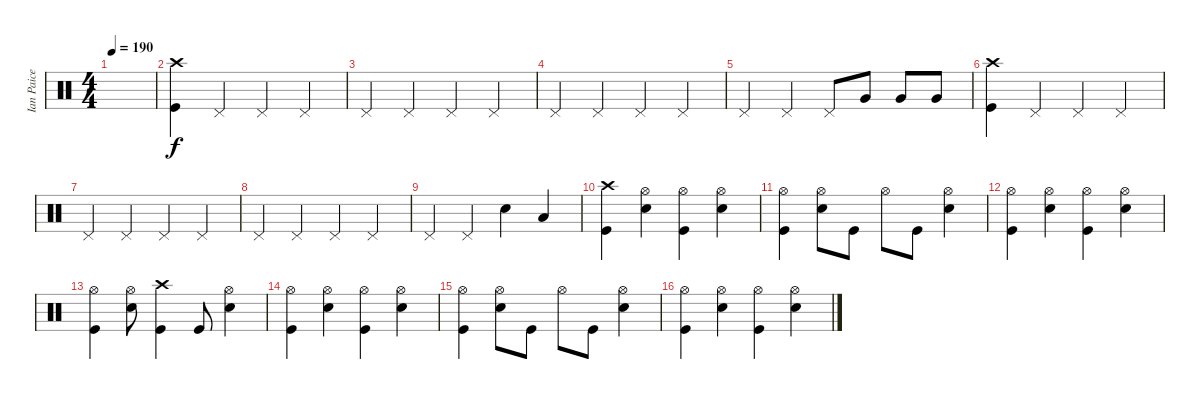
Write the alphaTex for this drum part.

\track ("Ian Paice" "Ian Paice") {instrument percussion}
\staff {score}
\articulation defaults
\ts (4 4)
\tempo 190
\clef neutral
\ks c
|
("Kick (hit)" "Crash high (hit)").4 "Pedal Hi-Hat (hit)".4 "Pedal Hi-Hat (hit)".4 "Pedal Hi-Hat (hit)".4 |
"Pedal Hi-Hat (hit)".4 "Pedal Hi-Hat (hit)".4 "Pedal Hi-Hat (hit)".4 "Pedal Hi-Hat (hit)".4 |
"Pedal Hi-Hat (hit)".4 "Pedal Hi-Hat (hit)".4 "Pedal Hi-Hat (hit)".4 "Pedal Hi-Hat (hit)".4 |
"Pedal Hi-Hat (hit)".4 "Pedal Hi-Hat (hit)".4 "Pedal Hi-Hat (hit)".8 "Very Low Tom (hit)".8 "Very Low Tom (hit)".8 "Very Low Tom (hit)".8 |
("Kick (hit)" "Crash high (hit)").4 "Pedal Hi-Hat (hit)".4 "Pedal Hi-Hat (hit)".4 "Pedal Hi-Hat (hit)".4 |
"Pedal Hi-Hat (hit)".4 "Pedal Hi-Hat (hit)".4 "Pedal Hi-Hat (hit)".4 "Pedal Hi-Hat (hit)".4 |
"Pedal Hi-Hat (hit)".4 "Pedal Hi-Hat (hit)".4 "Pedal Hi-Hat (hit)".4 "Pedal Hi-Hat (hit)".4 |
"Pedal Hi-Hat (hit)".4 "Pedal Hi-Hat (hit)".4 "Snare (hit) 2".4 "Low Tom (hit)".4 |
("Kick (hit)" "Crash high (hit)").4 ("Snare (hit) 2" "Hi-Hat (open)").4 ("Hi-Hat (open)" "Kick (hit)").4 ("Snare (hit) 2" "Hi-Hat (open)").4 |
("Kick (hit)" "Hi-Hat (open)").4 ("Hi-Hat (open)" "Snare (hit) 2").8 "Kick (hit)".8 "Hi-Hat (open)".8 "Kick (hit)".8 ("Snare (hit) 2" "Hi-Hat (open)").4 |
("Hi-Hat (open)" "Kick (hit)").4 ("Snare (hit) 2" "Hi-Hat (open)").4 ("Kick (hit)" "Hi-Hat (open)").4 ("Snare (hit) 2" "Hi-Hat (open)").4 |
("Hi-Hat (open)" "Kick (hit)").4 ("Snare (hit) 2" "Hi-Hat (open)").8 ("Kick (hit)" "Crash high (hit)").4 "Kick (hit)".8 ("Hi-Hat (open)" "Snare (hit) 2").4 |
("Hi-Hat (open)" "Kick (hit)").4 ("Snare (hit) 2" "Hi-Hat (open)").4 ("Hi-Hat (open)" "Kick (hit)").4 ("Snare (hit) 2" "Hi-Hat (open)").4 |
("Kick (hit)" "Hi-Hat (open)").4 ("Snare (hit) 2" "Hi-Hat (open)").8 "Kick (hit)".8 "Hi-Hat (open)".8 "Kick (hit)".8 ("Snare (hit) 2" "Hi-Hat (open)").4 |
("Kick (hit)" "Hi-Hat (open)").4 ("Hi-Hat (open)" "Snare (hit) 2").4 ("Kick (hit)" "Hi-Hat (open)").4 ("Snare (hit) 2" "Hi-Hat (open)").4
